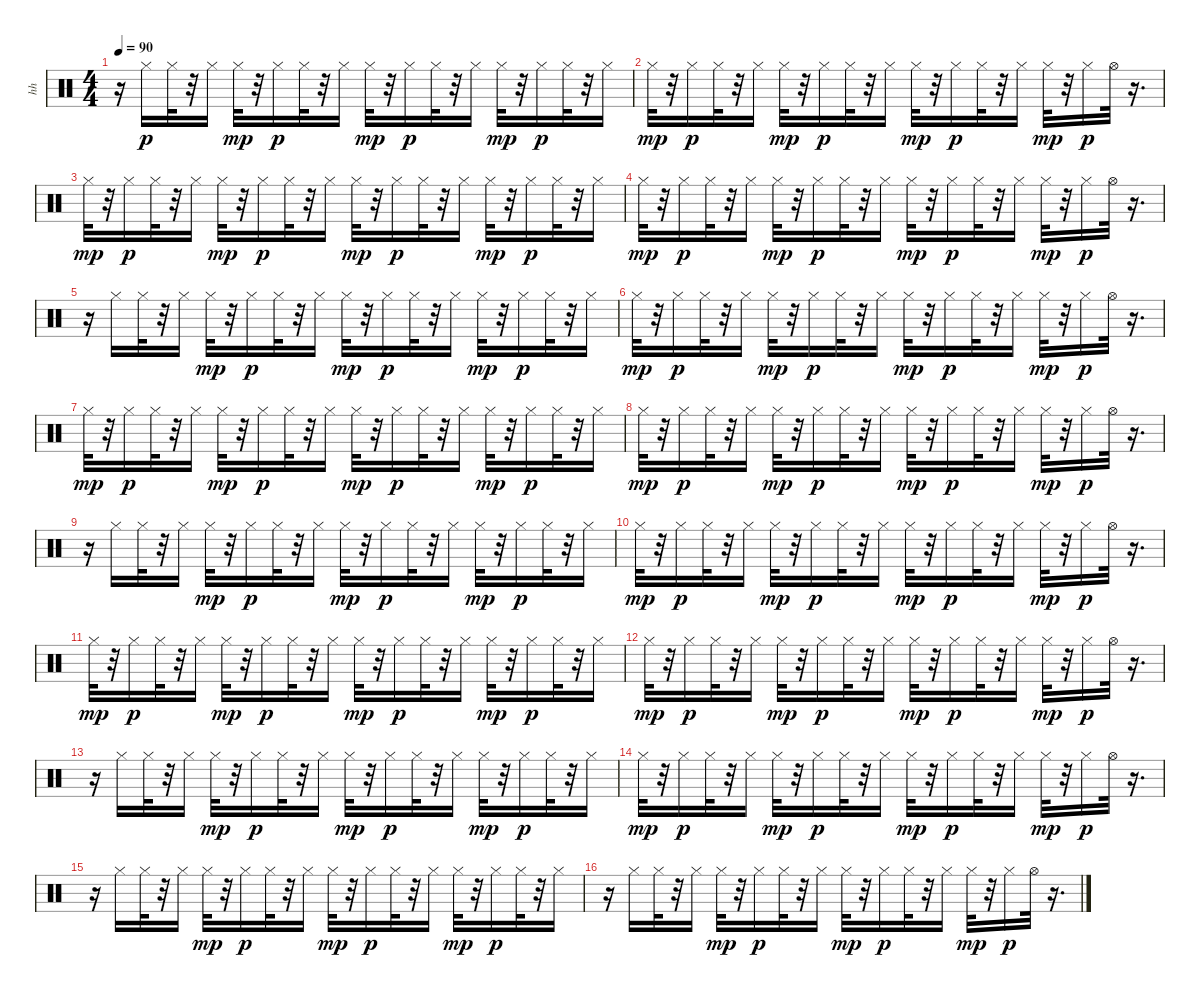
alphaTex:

\track ("hh" "hh") {instrument percussion}
\staff {score}
\articulation defaults
\ts (4 4)
\tempo 90
\clef neutral
\ks c
r.16{dy p} "Hi-Hat (closed)".16 "Hi-Hat (closed)".32 r.32 "Hi-Hat (closed)".16 "Hi-Hat (closed)".32{dy mp} r.32 "Hi-Hat (closed)".16{dy p} "Hi-Hat (closed)".32 r.32 "Hi-Hat (closed)".16 "Hi-Hat (closed)".32{dy mp} r.32 "Hi-Hat (closed)".16{dy p} "Hi-Hat (closed)".32 r.32 "Hi-Hat (closed)".16 "Hi-Hat (closed)".32{dy mp} r.32 "Hi-Hat (closed)".16{dy p} "Hi-Hat (closed)".32 r.32 "Hi-Hat (closed)".16 |
"Hi-Hat (closed)".32{dy mp} r.32 "Hi-Hat (closed)".16{dy p} "Hi-Hat (closed)".32 r.32 "Hi-Hat (closed)".16 "Hi-Hat (closed)".32{dy mp} r.32 "Hi-Hat (closed)".16{dy p} "Hi-Hat (closed)".32 r.32 "Hi-Hat (closed)".16 "Hi-Hat (closed)".32{dy mp} r.32 "Hi-Hat (closed)".16{dy p} "Hi-Hat (closed)".32 r.32 "Hi-Hat (closed)".16 "Hi-Hat (closed)".32{dy mp} r.32 "Hi-Hat (closed)".16{dy p} "Hi-Hat (open)".32 r.16{d} |
"Hi-Hat (closed)".32{dy mp} r.32 "Hi-Hat (closed)".16{dy p} "Hi-Hat (closed)".32 r.32 "Hi-Hat (closed)".16 "Hi-Hat (closed)".32{dy mp} r.32 "Hi-Hat (closed)".16{dy p} "Hi-Hat (closed)".32 r.32 "Hi-Hat (closed)".16 "Hi-Hat (closed)".32{dy mp} r.32 "Hi-Hat (closed)".16{dy p} "Hi-Hat (closed)".32 r.32 "Hi-Hat (closed)".16 "Hi-Hat (closed)".32{dy mp} r.32 "Hi-Hat (closed)".16{dy p} "Hi-Hat (closed)".32 r.32 "Hi-Hat (closed)".16 |
"Hi-Hat (closed)".32{dy mp} r.32 "Hi-Hat (closed)".16{dy p} "Hi-Hat (closed)".32 r.32 "Hi-Hat (closed)".16 "Hi-Hat (closed)".32{dy mp} r.32 "Hi-Hat (closed)".16{dy p} "Hi-Hat (closed)".32 r.32 "Hi-Hat (closed)".16 "Hi-Hat (closed)".32{dy mp} r.32 "Hi-Hat (closed)".16{dy p} "Hi-Hat (closed)".32 r.32 "Hi-Hat (closed)".16 "Hi-Hat (closed)".32{dy mp} r.32 "Hi-Hat (closed)".16{dy p} "Hi-Hat (open)".32 r.16{d} |
r.16 "Hi-Hat (closed)".16 "Hi-Hat (closed)".32 r.32 "Hi-Hat (closed)".16 "Hi-Hat (closed)".32{dy mp} r.32 "Hi-Hat (closed)".16{dy p} "Hi-Hat (closed)".32 r.32 "Hi-Hat (closed)".16 "Hi-Hat (closed)".32{dy mp} r.32 "Hi-Hat (closed)".16{dy p} "Hi-Hat (closed)".32 r.32 "Hi-Hat (closed)".16 "Hi-Hat (closed)".32{dy mp} r.32 "Hi-Hat (closed)".16{dy p} "Hi-Hat (closed)".32 r.32 "Hi-Hat (closed)".16 |
"Hi-Hat (closed)".32{dy mp} r.32 "Hi-Hat (closed)".16{dy p} "Hi-Hat (closed)".32 r.32 "Hi-Hat (closed)".16 "Hi-Hat (closed)".32{dy mp} r.32 "Hi-Hat (closed)".16{dy p} "Hi-Hat (closed)".32 r.32 "Hi-Hat (closed)".16 "Hi-Hat (closed)".32{dy mp} r.32 "Hi-Hat (closed)".16{dy p} "Hi-Hat (closed)".32 r.32 "Hi-Hat (closed)".16 "Hi-Hat (closed)".32{dy mp} r.32 "Hi-Hat (closed)".16{dy p} "Hi-Hat (open)".32 r.16{d} |
"Hi-Hat (closed)".32{dy mp} r.32 "Hi-Hat (closed)".16{dy p} "Hi-Hat (closed)".32 r.32 "Hi-Hat (closed)".16 "Hi-Hat (closed)".32{dy mp} r.32 "Hi-Hat (closed)".16{dy p} "Hi-Hat (closed)".32 r.32 "Hi-Hat (closed)".16 "Hi-Hat (closed)".32{dy mp} r.32 "Hi-Hat (closed)".16{dy p} "Hi-Hat (closed)".32 r.32 "Hi-Hat (closed)".16 "Hi-Hat (closed)".32{dy mp} r.32 "Hi-Hat (closed)".16{dy p} "Hi-Hat (closed)".32 r.32 "Hi-Hat (closed)".16 |
"Hi-Hat (closed)".32{dy mp} r.32 "Hi-Hat (closed)".16{dy p} "Hi-Hat (closed)".32 r.32 "Hi-Hat (closed)".16 "Hi-Hat (closed)".32{dy mp} r.32 "Hi-Hat (closed)".16{dy p} "Hi-Hat (closed)".32 r.32 "Hi-Hat (closed)".16 "Hi-Hat (closed)".32{dy mp} r.32 "Hi-Hat (closed)".16{dy p} "Hi-Hat (closed)".32 r.32 "Hi-Hat (closed)".16 "Hi-Hat (closed)".32{dy mp} r.32 "Hi-Hat (closed)".16{dy p} "Hi-Hat (open)".32 r.16{d} |
r.16 "Hi-Hat (closed)".16 "Hi-Hat (closed)".32 r.32 "Hi-Hat (closed)".16 "Hi-Hat (closed)".32{dy mp} r.32 "Hi-Hat (closed)".16{dy p} "Hi-Hat (closed)".32 r.32 "Hi-Hat (closed)".16 "Hi-Hat (closed)".32{dy mp} r.32 "Hi-Hat (closed)".16{dy p} "Hi-Hat (closed)".32 r.32 "Hi-Hat (closed)".16 "Hi-Hat (closed)".32{dy mp} r.32 "Hi-Hat (closed)".16{dy p} "Hi-Hat (closed)".32 r.32 "Hi-Hat (closed)".16 |
"Hi-Hat (closed)".32{dy mp} r.32 "Hi-Hat (closed)".16{dy p} "Hi-Hat (closed)".32 r.32 "Hi-Hat (closed)".16 "Hi-Hat (closed)".32{dy mp} r.32 "Hi-Hat (closed)".16{dy p} "Hi-Hat (closed)".32 r.32 "Hi-Hat (closed)".16 "Hi-Hat (closed)".32{dy mp} r.32 "Hi-Hat (closed)".16{dy p} "Hi-Hat (closed)".32 r.32 "Hi-Hat (closed)".16 "Hi-Hat (closed)".32{dy mp} r.32 "Hi-Hat (closed)".16{dy p} "Hi-Hat (open)".32 r.16{d} |
"Hi-Hat (closed)".32{dy mp} r.32 "Hi-Hat (closed)".16{dy p} "Hi-Hat (closed)".32 r.32 "Hi-Hat (closed)".16 "Hi-Hat (closed)".32{dy mp} r.32 "Hi-Hat (closed)".16{dy p} "Hi-Hat (closed)".32 r.32 "Hi-Hat (closed)".16 "Hi-Hat (closed)".32{dy mp} r.32 "Hi-Hat (closed)".16{dy p} "Hi-Hat (closed)".32 r.32 "Hi-Hat (closed)".16 "Hi-Hat (closed)".32{dy mp} r.32 "Hi-Hat (closed)".16{dy p} "Hi-Hat (closed)".32 r.32 "Hi-Hat (closed)".16 |
"Hi-Hat (closed)".32{dy mp} r.32 "Hi-Hat (closed)".16{dy p} "Hi-Hat (closed)".32 r.32 "Hi-Hat (closed)".16 "Hi-Hat (closed)".32{dy mp} r.32 "Hi-Hat (closed)".16{dy p} "Hi-Hat (closed)".32 r.32 "Hi-Hat (closed)".16 "Hi-Hat (closed)".32{dy mp} r.32 "Hi-Hat (closed)".16{dy p} "Hi-Hat (closed)".32 r.32 "Hi-Hat (closed)".16 "Hi-Hat (closed)".32{dy mp} r.32 "Hi-Hat (closed)".16{dy p} "Hi-Hat (open)".32 r.16{d} |
r.16 "Hi-Hat (closed)".16 "Hi-Hat (closed)".32 r.32 "Hi-Hat (closed)".16 "Hi-Hat (closed)".32{dy mp} r.32 "Hi-Hat (closed)".16{dy p} "Hi-Hat (closed)".32 r.32 "Hi-Hat (closed)".16 "Hi-Hat (closed)".32{dy mp} r.32 "Hi-Hat (closed)".16{dy p} "Hi-Hat (closed)".32 r.32 "Hi-Hat (closed)".16 "Hi-Hat (closed)".32{dy mp} r.32 "Hi-Hat (closed)".16{dy p} "Hi-Hat (closed)".32 r.32 "Hi-Hat (closed)".16 |
"Hi-Hat (closed)".32{dy mp} r.32 "Hi-Hat (closed)".16{dy p} "Hi-Hat (closed)".32 r.32 "Hi-Hat (closed)".16 "Hi-Hat (closed)".32{dy mp} r.32 "Hi-Hat (closed)".16{dy p} "Hi-Hat (closed)".32 r.32 "Hi-Hat (closed)".16 "Hi-Hat (closed)".32{dy mp} r.32 "Hi-Hat (closed)".16{dy p} "Hi-Hat (closed)".32 r.32 "Hi-Hat (closed)".16 "Hi-Hat (closed)".32{dy mp} r.32 "Hi-Hat (closed)".16{dy p} "Hi-Hat (open)".32 r.16{d} |
r.16 "Hi-Hat (closed)".16 "Hi-Hat (closed)".32 r.32 "Hi-Hat (closed)".16 "Hi-Hat (closed)".32{dy mp} r.32 "Hi-Hat (closed)".16{dy p} "Hi-Hat (closed)".32 r.32 "Hi-Hat (closed)".16 "Hi-Hat (closed)".32{dy mp} r.32 "Hi-Hat (closed)".16{dy p} "Hi-Hat (closed)".32 r.32 "Hi-Hat (closed)".16 "Hi-Hat (closed)".32{dy mp} r.32 "Hi-Hat (closed)".16{dy p} "Hi-Hat (closed)".32 r.32 "Hi-Hat (closed)".16 |
r.16 "Hi-Hat (closed)".16 "Hi-Hat (closed)".32 r.32 "Hi-Hat (closed)".16 "Hi-Hat (closed)".32{dy mp} r.32 "Hi-Hat (closed)".16{dy p} "Hi-Hat (closed)".32 r.32 "Hi-Hat (closed)".16 "Hi-Hat (closed)".32{dy mp} r.32 "Hi-Hat (closed)".16{dy p} "Hi-Hat (closed)".32 r.32 "Hi-Hat (closed)".16 "Hi-Hat (closed)".32{dy mp} r.32 "Hi-Hat (closed)".16{dy p} "Hi-Hat (open)".32 r.16{d}
